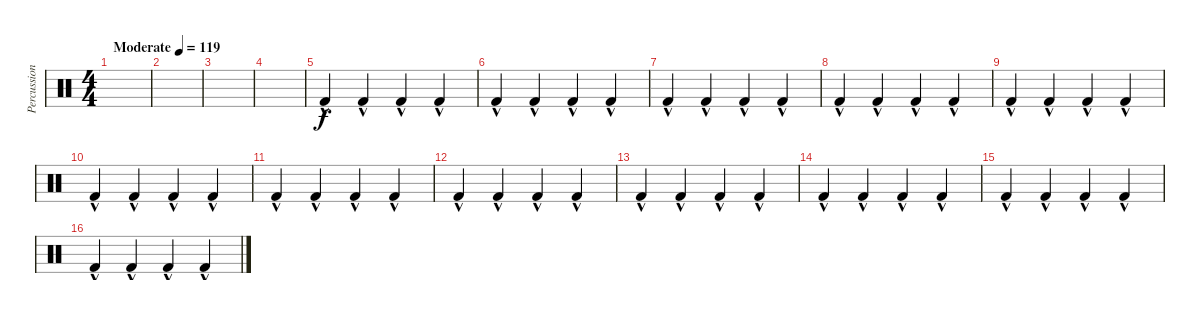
\track ("Percussion" "Percussion") {instrument percussion}
\staff {score}
\articulation defaults
\ts (4 4)
\tempo (119 "Moderate")
\clef neutral
\ks c
|
|
|
|
"Kick (hit) 2"{hac}.4 "Kick (hit) 2"{hac}.4 "Kick (hit) 2"{hac}.4 "Kick (hit) 2"{hac}.4 |
"Kick (hit) 2"{hac}.4 "Kick (hit) 2"{hac}.4 "Kick (hit) 2"{hac}.4 "Kick (hit) 2"{hac}.4 |
"Kick (hit) 2"{hac}.4 "Kick (hit) 2"{hac}.4 "Kick (hit) 2"{hac}.4 "Kick (hit) 2"{hac}.4 |
"Kick (hit) 2"{hac}.4 "Kick (hit) 2"{hac}.4 "Kick (hit) 2"{hac}.4 "Kick (hit) 2"{hac}.4 |
"Kick (hit) 2"{hac}.4 "Kick (hit) 2"{hac}.4 "Kick (hit) 2"{hac}.4 "Kick (hit) 2"{hac}.4 |
"Kick (hit) 2"{hac}.4 "Kick (hit) 2"{hac}.4 "Kick (hit) 2"{hac}.4 "Kick (hit) 2"{hac}.4 |
"Kick (hit) 2"{hac}.4 "Kick (hit) 2"{hac}.4 "Kick (hit) 2"{hac}.4 "Kick (hit) 2"{hac}.4 |
"Kick (hit) 2"{hac}.4 "Kick (hit) 2"{hac}.4 "Kick (hit) 2"{hac}.4 "Kick (hit) 2"{hac}.4 |
"Kick (hit) 2"{hac}.4 "Kick (hit) 2"{hac}.4 "Kick (hit) 2"{hac}.4 "Kick (hit) 2"{hac}.4 |
"Kick (hit) 2"{hac}.4 "Kick (hit) 2"{hac}.4 "Kick (hit) 2"{hac}.4 "Kick (hit) 2"{hac}.4 |
"Kick (hit) 2"{hac}.4 "Kick (hit) 2"{hac}.4 "Kick (hit) 2"{hac}.4 "Kick (hit) 2"{hac}.4 |
"Kick (hit) 2"{hac}.4 "Kick (hit) 2"{hac}.4 "Kick (hit) 2"{hac}.4 "Kick (hit) 2"{hac}.4
